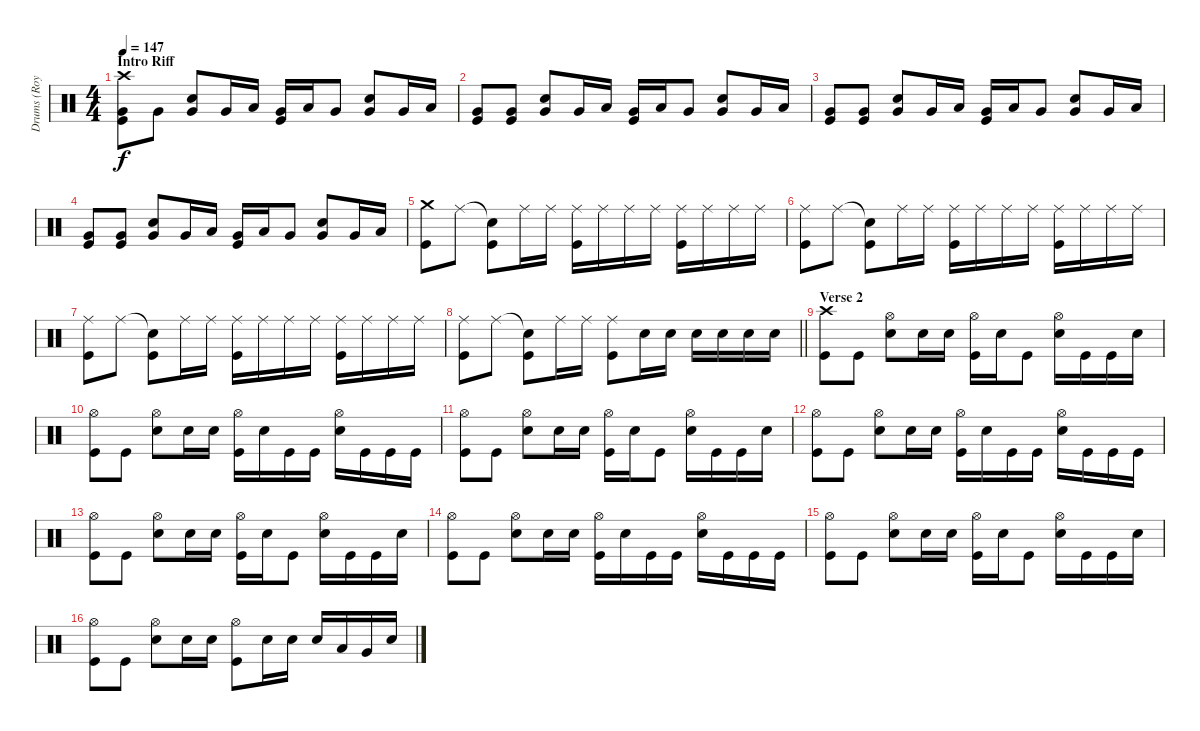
\track ("Drums (Roy)" "Drums (Roy") {instrument percussion}
\staff {score}
\articulation defaults
\ts (4 4)
\section ("" "Intro Riff")
\tempo 147
\clef neutral
\ks c
("Crash high (hit)" "Very Low Tom (hit)" "Kick (hit)").8{dy f} "Very Low Tom (hit)".8 ("Very Low Tom (hit)" "Snare (hit) 2").8 "Very Low Tom (hit)".16 "Low Floor Tom (hit)".16 ("Very Low Tom (hit)" "Kick (hit)").16 "Low Floor Tom (hit)".16 "Very Low Tom (hit)".8 ("Very Low Tom (hit)" "Snare (hit) 2").8 "Very Low Tom (hit)".16 "Low Floor Tom (hit)".16 |
("Very Low Tom (hit)" "Kick (hit)").8 ("Very Low Tom (hit)" "Kick (hit)").8 ("Very Low Tom (hit)" "Snare (hit) 2").8 "Very Low Tom (hit)".16 "Low Floor Tom (hit)".16 ("Very Low Tom (hit)" "Kick (hit)").16 "Low Floor Tom (hit)".16 "Very Low Tom (hit)".8 ("Very Low Tom (hit)" "Snare (hit) 2").8 "Very Low Tom (hit)".16 "Low Floor Tom (hit)".16 |
("Very Low Tom (hit)" "Kick (hit)").8 ("Very Low Tom (hit)" "Kick (hit)").8 ("Very Low Tom (hit)" "Snare (hit) 2").8 "Very Low Tom (hit)".16 "Low Floor Tom (hit)".16 ("Very Low Tom (hit)" "Kick (hit)").16 "Low Floor Tom (hit)".16 "Very Low Tom (hit)".8 ("Very Low Tom (hit)" "Snare (hit) 2").8 "Very Low Tom (hit)".16 "Low Floor Tom (hit)".16 |
("Very Low Tom (hit)" "Kick (hit)").8 ("Very Low Tom (hit)" "Kick (hit)").8 ("Very Low Tom (hit)" "Snare (hit) 2").8 "Very Low Tom (hit)".16 "Low Floor Tom (hit)".16 ("Very Low Tom (hit)" "Kick (hit)").16 "Low Floor Tom (hit)".16 "Very Low Tom (hit)".8 ("Very Low Tom (hit)" "Snare (hit) 2").8 "Very Low Tom (hit)".16 "Low Floor Tom (hit)".16 |
("Crash medium (hit)" "Kick (hit)").8 "Ride (middle)".8 ("Snare (hit)"{t} "Kick (hit)").8 "Ride (middle)".16 "Ride (middle)".16 ("Ride (middle)" "Kick (hit)").16 "Ride (middle)".16 "Ride (middle)".16 "Ride (middle)".16 ("Ride (middle)" "Kick (hit)").16 "Ride (middle)".16 "Ride (middle)".16 "Ride (middle)".16 |
("Ride (middle)" "Kick (hit)").8 "Ride (middle)".8 ("Snare (hit)"{t} "Kick (hit)").8 "Ride (middle)".16 "Ride (middle)".16 ("Ride (middle)" "Kick (hit)").16 "Ride (middle)".16 "Ride (middle)".16 "Ride (middle)".16 ("Ride (middle)" "Kick (hit)").16 "Ride (middle)".16 "Ride (middle)".16 "Ride (middle)".16 |
("Ride (middle)" "Kick (hit)").8 "Ride (middle)".8 ("Snare (hit)"{t} "Kick (hit)").8 "Ride (middle)".16 "Ride (middle)".16 ("Ride (middle)" "Kick (hit)").16 "Ride (middle)".16 "Ride (middle)".16 "Ride (middle)".16 ("Ride (middle)" "Kick (hit)").16 "Ride (middle)".16 "Ride (middle)".16 "Ride (middle)".16 |
\barLineRight lightlight
("Ride (middle)" "Kick (hit)").8 "Ride (middle)".8 ("Snare (hit)"{t} "Kick (hit)").8 "Ride (middle)".16 "Ride (middle)".16 ("Ride (middle)" "Kick (hit)").8 "Snare (hit) 2".16 "Snare (hit) 2".16 "Snare (hit) 2".16 "Snare (hit) 2".16 "Snare (hit) 2".16 "Snare (hit) 2".16 |
\section ("" "Verse 2")
("Crash high (hit)" "Kick (hit)").8 "Kick (hit)".8 ("Hi-Hat (open)" "Snare (hit) 2").8 "Snare (hit) 2".16 "Snare (hit) 2".16 ("Hi-Hat (open)" "Kick (hit)").16 "Snare (hit) 2".16 "Kick (hit)".8 ("Hi-Hat (open)" "Snare (hit) 2").16 "Kick (hit)".16 "Kick (hit)".16 "Snare (hit) 2".16 |
("Hi-Hat (open)" "Kick (hit)").8 "Kick (hit)".8 ("Hi-Hat (open)" "Snare (hit) 2").8 "Snare (hit) 2".16 "Snare (hit) 2".16 ("Hi-Hat (open)" "Kick (hit)").16 "Snare (hit) 2".16 "Kick (hit)".16 "Kick (hit)".16 ("Hi-Hat (open)" "Snare (hit) 2").16 "Kick (hit)".16 "Kick (hit)".16 "Kick (hit)".16 |
("Hi-Hat (open)" "Kick (hit)").8 "Kick (hit)".8 ("Hi-Hat (open)" "Snare (hit) 2").8 "Snare (hit) 2".16 "Snare (hit) 2".16 ("Hi-Hat (open)" "Kick (hit)").16 "Snare (hit) 2".16 "Kick (hit)".8 ("Hi-Hat (open)" "Snare (hit) 2").16 "Kick (hit)".16 "Kick (hit)".16 "Snare (hit) 2".16 |
("Hi-Hat (open)" "Kick (hit)").8 "Kick (hit)".8 ("Hi-Hat (open)" "Snare (hit) 2").8 "Snare (hit) 2".16 "Snare (hit) 2".16 ("Hi-Hat (open)" "Kick (hit)").16 "Snare (hit) 2".16 "Kick (hit)".16 "Kick (hit)".16 ("Hi-Hat (open)" "Snare (hit) 2").16 "Kick (hit)".16 "Kick (hit)".16 "Kick (hit)".16 |
("Hi-Hat (open)" "Kick (hit)").8 "Kick (hit)".8 ("Hi-Hat (open)" "Snare (hit) 2").8 "Snare (hit) 2".16 "Snare (hit) 2".16 ("Hi-Hat (open)" "Kick (hit)").16 "Snare (hit) 2".16 "Kick (hit)".8 ("Hi-Hat (open)" "Snare (hit) 2").16 "Kick (hit)".16 "Kick (hit)".16 "Snare (hit) 2".16 |
("Hi-Hat (open)" "Kick (hit)").8 "Kick (hit)".8 ("Hi-Hat (open)" "Snare (hit) 2").8 "Snare (hit) 2".16 "Snare (hit) 2".16 ("Hi-Hat (open)" "Kick (hit)").16 "Snare (hit) 2".16 "Kick (hit)".16 "Kick (hit)".16 ("Hi-Hat (open)" "Snare (hit) 2").16 "Kick (hit)".16 "Kick (hit)".16 "Kick (hit)".16 |
("Hi-Hat (open)" "Kick (hit)").8 "Kick (hit)".8 ("Hi-Hat (open)" "Snare (hit) 2").8 "Snare (hit) 2".16 "Snare (hit) 2".16 ("Hi-Hat (open)" "Kick (hit)").16 "Snare (hit) 2".16 "Kick (hit)".8 ("Hi-Hat (open)" "Snare (hit) 2").16 "Kick (hit)".16 "Kick (hit)".16 "Snare (hit) 2".16 |
("Hi-Hat (open)" "Kick (hit)").8 "Kick (hit)".8 ("Hi-Hat (open)" "Snare (hit) 2").8 "Snare (hit) 2".16 "Snare (hit) 2".16 ("Hi-Hat (open)" "Kick (hit)").8 "Snare (hit) 2".16 "Snare (hit) 2".16 "Snare (hit) 2".16 "Low Tom (hit)".16 "Very Low Tom (hit)".16 "Snare (hit) 2".16
